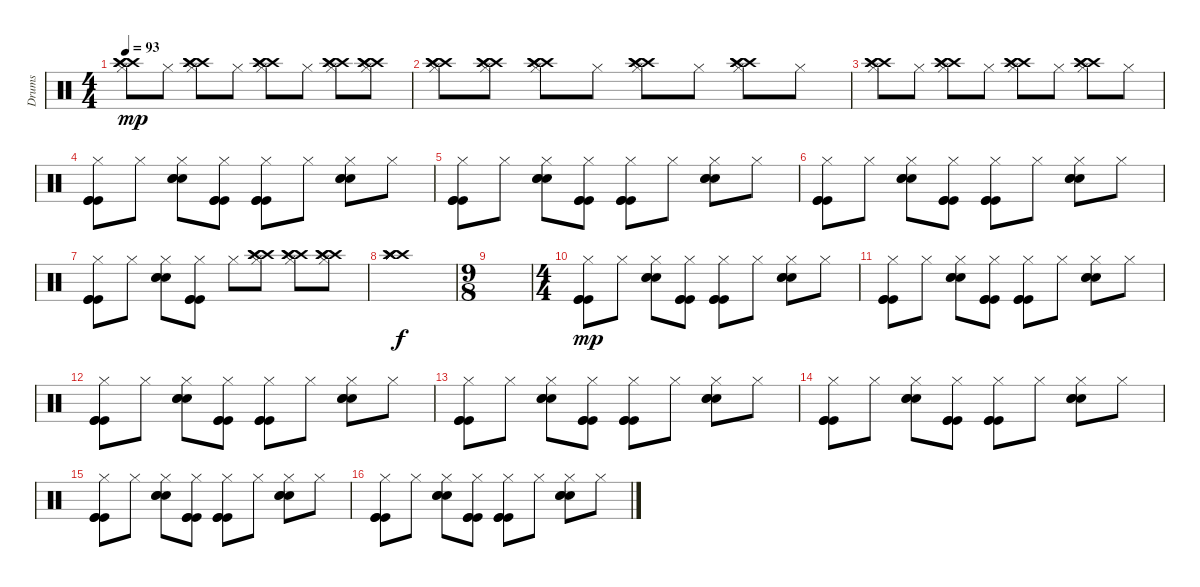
\track ("Drums" "Drums") {instrument percussion}
\staff {score}
\articulation defaults
\ts (4 4)
\tempo 93
\clef neutral
\ks c
("Crash high (hit)" "Crash high (hit)" "Crash high (hit)" "Hi-Hat (closed)").8{dy mp} "Hi-Hat (closed)".8 ("Crash high (hit)" "Crash high (hit)" "Crash high (hit)" "Hi-Hat (closed)").8 "Hi-Hat (closed)".8 ("Crash high (hit)" "Crash high (hit)" "Crash high (hit)" "Hi-Hat (closed)").8 "Hi-Hat (closed)".8 ("Crash high (hit)" "Crash high (hit)" "Crash high (hit)" "Hi-Hat (closed)").8 ("Crash high (hit)" "Crash high (hit)" "Crash high (hit)" "Hi-Hat (closed)").8 |
("Crash high (hit)" "Crash high (hit)" "Crash high (hit)" "Hi-Hat (closed)").8 ("Crash high (hit)" "Crash high (hit)" "Crash high (hit)" "Hi-Hat (closed)").8 ("Crash high (hit)" "Crash high (hit)" "Crash high (hit)" "Hi-Hat (closed)").8 "Hi-Hat (closed)".8 ("Crash high (hit)" "Crash high (hit)" "Crash high (hit)" "Hi-Hat (closed)").8 "Hi-Hat (closed)".8 ("Crash high (hit)" "Crash high (hit)" "Crash high (hit)" "Hi-Hat (closed)").8 "Hi-Hat (closed)".8 |
("Crash high (hit)" "Crash high (hit)" "Crash high (hit)" "Hi-Hat (closed)").8 "Hi-Hat (closed)".8 ("Crash high (hit)" "Crash high (hit)" "Crash high (hit)" "Hi-Hat (closed)").8 "Hi-Hat (closed)".8 ("Crash high (hit)" "Crash high (hit)" "Crash high (hit)" "Hi-Hat (closed)").8 "Hi-Hat (closed)".8 ("Crash high (hit)" "Crash high (hit)" "Crash high (hit)" "Hi-Hat (closed)").8 "Hi-Hat (closed)".8 |
("Kick (hit)" "Kick (hit)" "Kick (hit)" "Hi-Hat (closed)").8 "Hi-Hat (closed)".8 ("Snare (hit) 2" "Snare (hit) 2" "Snare (hit) 2" "Hi-Hat (closed)").8 ("Kick (hit)" "Kick (hit)" "Kick (hit)" "Hi-Hat (closed)").8 ("Kick (hit)" "Kick (hit)" "Kick (hit)" "Hi-Hat (closed)").8 "Hi-Hat (closed)".8 ("Snare (hit) 2" "Snare (hit) 2" "Snare (hit) 2" "Hi-Hat (closed)").8 "Hi-Hat (closed)".8 |
("Kick (hit)" "Kick (hit)" "Kick (hit)" "Hi-Hat (closed)").8 "Hi-Hat (closed)".8 ("Snare (hit) 2" "Snare (hit) 2" "Snare (hit) 2" "Hi-Hat (closed)").8 ("Kick (hit)" "Kick (hit)" "Kick (hit)" "Hi-Hat (closed)").8 ("Kick (hit)" "Kick (hit)" "Kick (hit)" "Hi-Hat (closed)").8 "Hi-Hat (closed)".8 ("Snare (hit) 2" "Snare (hit) 2" "Snare (hit) 2" "Hi-Hat (closed)").8 "Hi-Hat (closed)".8 |
("Kick (hit)" "Kick (hit)" "Kick (hit)" "Hi-Hat (closed)").8 "Hi-Hat (closed)".8 ("Snare (hit) 2" "Snare (hit) 2" "Snare (hit) 2" "Hi-Hat (closed)").8 ("Kick (hit)" "Kick (hit)" "Kick (hit)" "Hi-Hat (closed)").8 ("Kick (hit)" "Kick (hit)" "Kick (hit)" "Hi-Hat (closed)").8 "Hi-Hat (closed)".8 ("Snare (hit) 2" "Snare (hit) 2" "Snare (hit) 2" "Hi-Hat (closed)").8 "Hi-Hat (closed)".8 |
("Kick (hit)" "Kick (hit)" "Kick (hit)" "Hi-Hat (closed)").8 "Hi-Hat (closed)".8 ("Snare (hit) 2" "Snare (hit) 2" "Snare (hit) 2" "Hi-Hat (closed)").8 ("Kick (hit)" "Kick (hit)" "Kick (hit)" "Hi-Hat (closed)").8 "Hi-Hat (closed)".8 ("Crash high (hit)" "Crash high (hit)" "Crash high (hit)" "Hi-Hat (closed)").8 ("Crash high (hit)" "Crash high (hit)" "Crash high (hit)" "Hi-Hat (closed)").8 ("Crash high (hit)" "Crash high (hit)" "Crash high (hit)" "Hi-Hat (closed)").8 |
("Crash high (hit)" "Crash high (hit)" "Splash (hit)" "Splash (hit)" "Splash (hit)" "Splash (hit)").1{dy f} |
\ts (9 8)
|
\ts (4 4)
("Kick (hit)" "Kick (hit)" "Kick (hit)" "Hi-Hat (closed)").8{dy mp} "Hi-Hat (closed)".8 ("Snare (hit) 2" "Snare (hit) 2" "Snare (hit) 2" "Hi-Hat (closed)").8 ("Kick (hit)" "Kick (hit)" "Kick (hit)" "Hi-Hat (closed)").8 ("Kick (hit)" "Kick (hit)" "Kick (hit)" "Hi-Hat (closed)").8 "Hi-Hat (closed)".8 ("Snare (hit) 2" "Snare (hit) 2" "Snare (hit) 2" "Hi-Hat (closed)").8 "Hi-Hat (closed)".8 |
("Kick (hit)" "Kick (hit)" "Kick (hit)" "Hi-Hat (closed)").8 "Hi-Hat (closed)".8 ("Snare (hit) 2" "Snare (hit) 2" "Snare (hit) 2" "Hi-Hat (closed)").8 ("Kick (hit)" "Kick (hit)" "Kick (hit)" "Hi-Hat (closed)").8 ("Kick (hit)" "Kick (hit)" "Kick (hit)" "Hi-Hat (closed)").8 "Hi-Hat (closed)".8 ("Snare (hit) 2" "Snare (hit) 2" "Snare (hit) 2" "Hi-Hat (closed)").8 "Hi-Hat (closed)".8 |
("Kick (hit)" "Kick (hit)" "Kick (hit)" "Hi-Hat (closed)").8 "Hi-Hat (closed)".8 ("Snare (hit) 2" "Snare (hit) 2" "Snare (hit) 2" "Hi-Hat (closed)").8 ("Kick (hit)" "Kick (hit)" "Kick (hit)" "Hi-Hat (closed)").8 ("Kick (hit)" "Kick (hit)" "Kick (hit)" "Hi-Hat (closed)").8 "Hi-Hat (closed)".8 ("Snare (hit) 2" "Snare (hit) 2" "Snare (hit) 2" "Hi-Hat (closed)").8 "Hi-Hat (closed)".8 |
("Kick (hit)" "Kick (hit)" "Kick (hit)" "Hi-Hat (closed)").8 "Hi-Hat (closed)".8 ("Snare (hit) 2" "Snare (hit) 2" "Snare (hit) 2" "Hi-Hat (closed)").8 ("Kick (hit)" "Kick (hit)" "Kick (hit)" "Hi-Hat (closed)").8 ("Kick (hit)" "Kick (hit)" "Kick (hit)" "Hi-Hat (closed)").8 "Hi-Hat (closed)".8 ("Snare (hit) 2" "Snare (hit) 2" "Snare (hit) 2" "Hi-Hat (closed)").8 "Hi-Hat (closed)".8 |
("Kick (hit)" "Kick (hit)" "Kick (hit)" "Hi-Hat (closed)").8 "Hi-Hat (closed)".8 ("Snare (hit) 2" "Snare (hit) 2" "Snare (hit) 2" "Hi-Hat (closed)").8 ("Kick (hit)" "Kick (hit)" "Kick (hit)" "Hi-Hat (closed)").8 ("Kick (hit)" "Kick (hit)" "Kick (hit)" "Hi-Hat (closed)").8 "Hi-Hat (closed)".8 ("Snare (hit) 2" "Snare (hit) 2" "Snare (hit) 2" "Hi-Hat (closed)").8 "Hi-Hat (closed)".8 |
("Kick (hit)" "Kick (hit)" "Kick (hit)" "Hi-Hat (closed)").8 "Hi-Hat (closed)".8 ("Snare (hit) 2" "Snare (hit) 2" "Snare (hit) 2" "Hi-Hat (closed)").8 ("Kick (hit)" "Kick (hit)" "Kick (hit)" "Hi-Hat (closed)").8 ("Kick (hit)" "Kick (hit)" "Kick (hit)" "Hi-Hat (closed)").8 "Hi-Hat (closed)".8 ("Snare (hit) 2" "Snare (hit) 2" "Snare (hit) 2" "Hi-Hat (closed)").8 "Hi-Hat (closed)".8 |
("Kick (hit)" "Kick (hit)" "Kick (hit)" "Hi-Hat (closed)").8 "Hi-Hat (closed)".8 ("Snare (hit) 2" "Snare (hit) 2" "Snare (hit) 2" "Hi-Hat (closed)").8 ("Kick (hit)" "Kick (hit)" "Kick (hit)" "Hi-Hat (closed)").8 ("Kick (hit)" "Kick (hit)" "Kick (hit)" "Hi-Hat (closed)").8 "Hi-Hat (closed)".8 ("Snare (hit) 2" "Snare (hit) 2" "Snare (hit) 2" "Hi-Hat (closed)").8 "Hi-Hat (closed)".8
